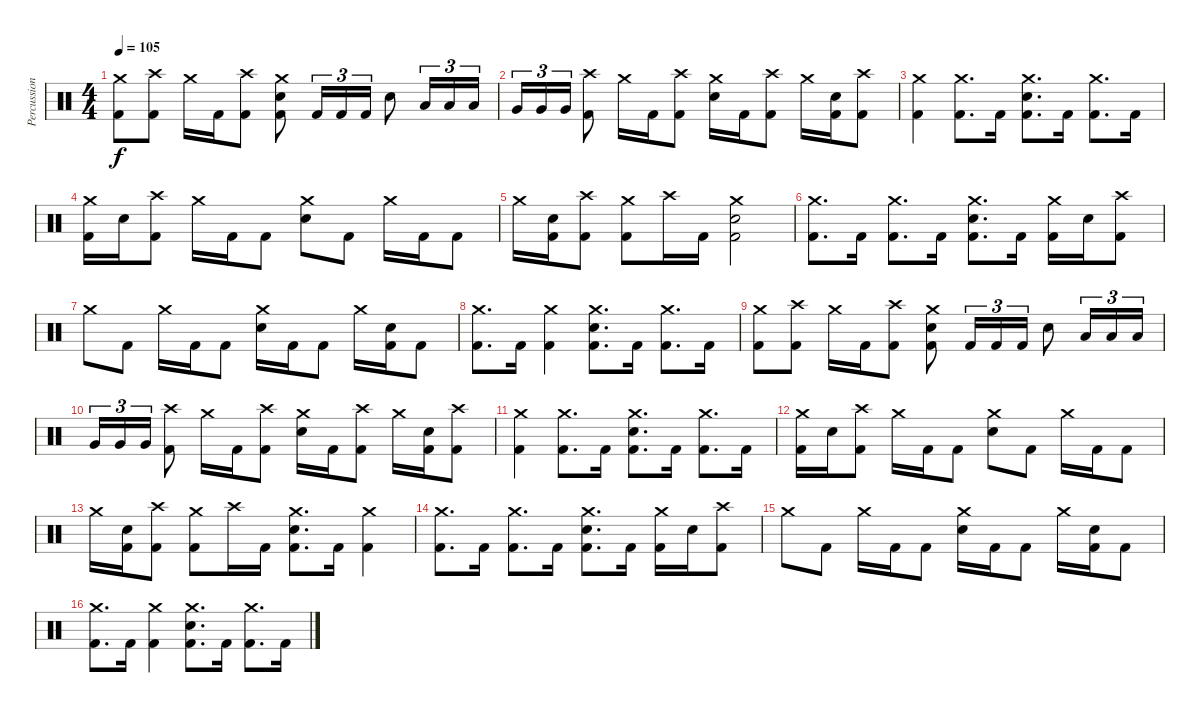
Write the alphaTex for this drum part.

\track ("Percussion" "Percussion") {instrument percussion}
\staff {score}
\articulation defaults
\ts (4 4)
\tempo 105
\clef neutral
\ks c
("Crash medium (hit)" "Kick (hit) 2").8{dy f} ("Crash high (hit)" "Kick (hit) 2").8 "Crash medium (hit)".16 "Kick (hit) 2".16 ("Crash high (hit)" "Kick (hit) 2").8 ("Crash medium (hit)" "Electric Snare (hit)" "Kick (hit) 2").8 "Kick (hit) 2".16{tu (3 2)} "Kick (hit) 2".16{tu (3 2)} "Kick (hit) 2".16{tu (3 2)} "Electric Snare (hit)".8 "Low Tom (hit)".16{tu (3 2)} "Low Tom (hit)".16{tu (3 2)} "Low Tom (hit)".16{tu (3 2)} |
"Very Low Tom (hit)".16{tu (3 2)} "Very Low Tom (hit)".16{tu (3 2)} "Very Low Tom (hit)".16{tu (3 2)} ("Crash high (hit)" "Kick (hit) 2").8 "Crash medium (hit)".16 "Kick (hit) 2".16 ("Crash high (hit)" "Kick (hit) 2").8 ("Crash medium (hit)" "Electric Snare (hit)").16 "Kick (hit) 2".16 ("Crash high (hit)" "Kick (hit) 2").8 "Crash medium (hit)".16 ("Electric Snare (hit)" "Kick (hit) 2").16 ("Crash high (hit)" "Kick (hit) 2").8 |
("Crash medium (hit)" "Kick (hit) 2").4 ("Crash medium (hit)" "Kick (hit) 2").8{d} "Kick (hit) 2".16 ("Crash medium (hit)" "Electric Snare (hit)" "Kick (hit) 2").8{d} "Kick (hit) 2".16 ("Crash medium (hit)" "Kick (hit) 2").8{d} "Kick (hit) 2".16 |
("Crash medium (hit)" "Kick (hit) 2").16 "Electric Snare (hit)".16 ("Crash high (hit)" "Kick (hit) 2").8 "Crash medium (hit)".16 "Kick (hit) 2".16 "Kick (hit) 2".8 ("Crash medium (hit)" "Electric Snare (hit)").8 "Kick (hit) 2".8 "Crash medium (hit)".16 "Kick (hit) 2".16 "Kick (hit) 2".8 |
"Crash medium (hit)".16 ("Electric Snare (hit)" "Kick (hit) 2").16 ("Crash high (hit)" "Kick (hit) 2").8 ("Crash medium (hit)" "Kick (hit) 2").8 "Crash high (hit)".16 "Kick (hit) 2".16 ("Crash medium (hit)" "Electric Snare (hit)" "Kick (hit) 2").2 |
("Crash medium (hit)" "Kick (hit) 2").8{d} "Kick (hit) 2".16 ("Crash medium (hit)" "Kick (hit) 2").8{d} "Kick (hit) 2".16 ("Crash medium (hit)" "Electric Snare (hit)" "Kick (hit) 2").8{d} "Kick (hit) 2".16 ("Crash medium (hit)" "Kick (hit) 2").16 "Electric Snare (hit)".16 ("Crash high (hit)" "Kick (hit) 2").8 |
"Crash medium (hit)".8 "Kick (hit) 2".8 "Crash medium (hit)".16 "Kick (hit) 2".16 "Kick (hit) 2".8 ("Crash medium (hit)" "Electric Snare (hit)").16 "Kick (hit) 2".16 "Kick (hit) 2".8 "Crash medium (hit)".16 ("Electric Snare (hit)" "Kick (hit) 2").16 "Kick (hit) 2".8 |
("Crash medium (hit)" "Kick (hit) 2").8{d} "Kick (hit) 2".16 ("Crash medium (hit)" "Kick (hit) 2").4 ("Crash medium (hit)" "Electric Snare (hit)" "Kick (hit) 2").8{d} "Kick (hit) 2".16 ("Crash medium (hit)" "Kick (hit) 2").8{d} "Kick (hit) 2".16 |
("Crash medium (hit)" "Kick (hit) 2").8 ("Crash high (hit)" "Kick (hit) 2").8 "Crash medium (hit)".16 "Kick (hit) 2".16 ("Crash high (hit)" "Kick (hit) 2").8 ("Crash medium (hit)" "Electric Snare (hit)" "Kick (hit) 2").8 "Kick (hit) 2".16{tu (3 2)} "Kick (hit) 2".16{tu (3 2)} "Kick (hit) 2".16{tu (3 2)} "Electric Snare (hit)".8 "Low Tom (hit)".16{tu (3 2)} "Low Tom (hit)".16{tu (3 2)} "Low Tom (hit)".16{tu (3 2)} |
"Very Low Tom (hit)".16{tu (3 2)} "Very Low Tom (hit)".16{tu (3 2)} "Very Low Tom (hit)".16{tu (3 2)} ("Crash high (hit)" "Kick (hit) 2").8 "Crash medium (hit)".16 "Kick (hit) 2".16 ("Crash high (hit)" "Kick (hit) 2").8 ("Crash medium (hit)" "Electric Snare (hit)").16 "Kick (hit) 2".16 ("Crash high (hit)" "Kick (hit) 2").8 "Crash medium (hit)".16 ("Electric Snare (hit)" "Kick (hit) 2").16 ("Crash high (hit)" "Kick (hit) 2").8 |
("Crash medium (hit)" "Kick (hit) 2").4 ("Crash medium (hit)" "Kick (hit) 2").8{d} "Kick (hit) 2".16 ("Crash medium (hit)" "Electric Snare (hit)" "Kick (hit) 2").8{d} "Kick (hit) 2".16 ("Crash medium (hit)" "Kick (hit) 2").8{d} "Kick (hit) 2".16 |
("Crash medium (hit)" "Kick (hit) 2").16 "Electric Snare (hit)".16 ("Crash high (hit)" "Kick (hit) 2").8 "Crash medium (hit)".16 "Kick (hit) 2".16 "Kick (hit) 2".8 ("Crash medium (hit)" "Electric Snare (hit)").8 "Kick (hit) 2".8 "Crash medium (hit)".16 "Kick (hit) 2".16 "Kick (hit) 2".8 |
"Crash medium (hit)".16 ("Electric Snare (hit)" "Kick (hit) 2").16 ("Crash high (hit)" "Kick (hit) 2").8 ("Crash medium (hit)" "Kick (hit) 2").8 "Crash high (hit)".16 "Kick (hit) 2".16 ("Crash medium (hit)" "Electric Snare (hit)" "Kick (hit) 2").8{d} "Kick (hit) 2".16 ("Crash medium (hit)" "Kick (hit) 2").4 |
("Crash medium (hit)" "Kick (hit) 2").8{d} "Kick (hit) 2".16 ("Crash medium (hit)" "Kick (hit) 2").8{d} "Kick (hit) 2".16 ("Crash medium (hit)" "Electric Snare (hit)" "Kick (hit) 2").8{d} "Kick (hit) 2".16 ("Crash medium (hit)" "Kick (hit) 2").16 "Electric Snare (hit)".16 ("Crash high (hit)" "Kick (hit) 2").8 |
"Crash medium (hit)".8 "Kick (hit) 2".8 "Crash medium (hit)".16 "Kick (hit) 2".16 "Kick (hit) 2".8 ("Crash medium (hit)" "Electric Snare (hit)").16 "Kick (hit) 2".16 "Kick (hit) 2".8 "Crash medium (hit)".16 ("Electric Snare (hit)" "Kick (hit) 2").16 "Kick (hit) 2".8 |
("Crash medium (hit)" "Kick (hit) 2").8{d} "Kick (hit) 2".16 ("Crash medium (hit)" "Kick (hit) 2").4 ("Crash medium (hit)" "Electric Snare (hit)" "Kick (hit) 2").8{d} "Kick (hit) 2".16 ("Crash medium (hit)" "Kick (hit) 2").8{d} "Kick (hit) 2".16
